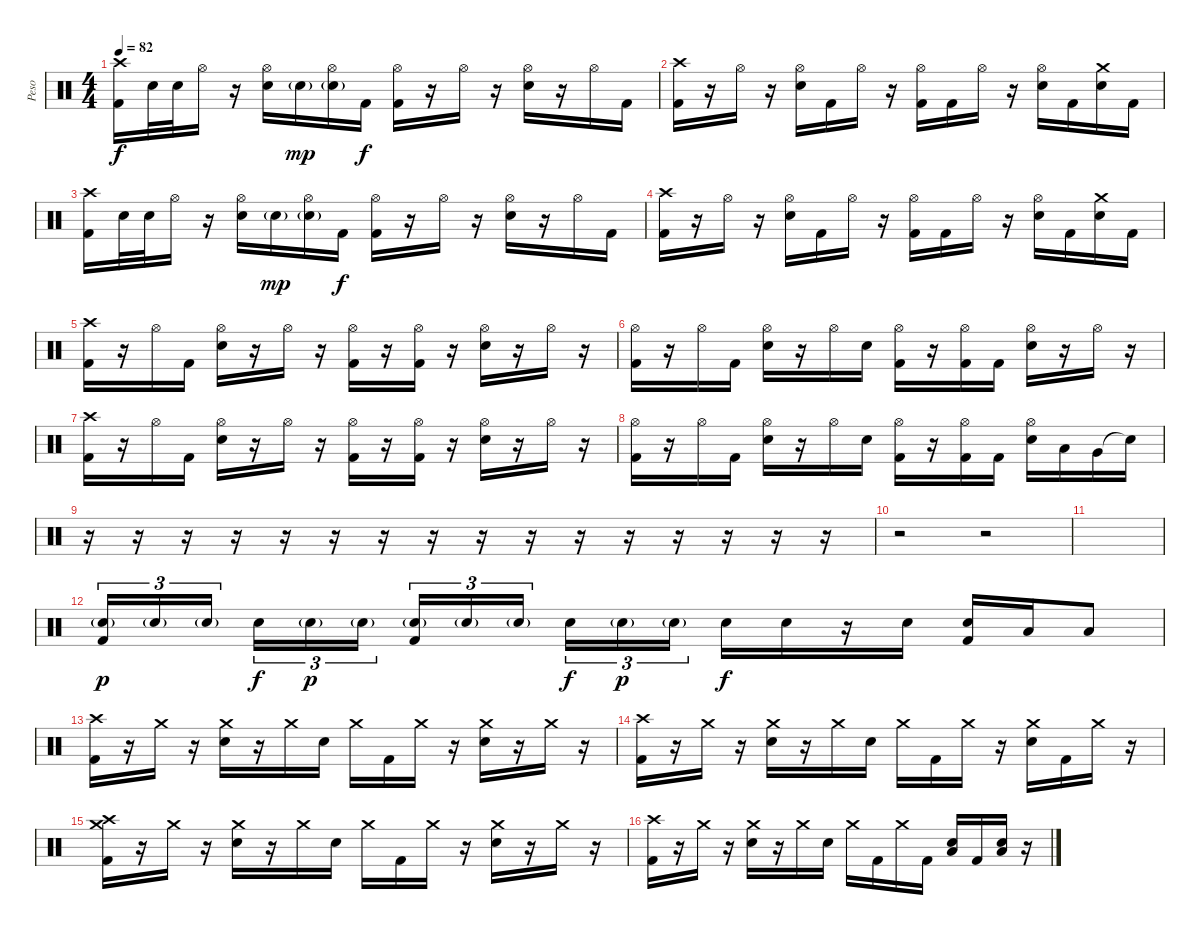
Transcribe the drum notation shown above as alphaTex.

\track ("Peso" "Peso") {instrument percussion}
\staff {score}
\articulation defaults
\ts (4 4)
\tempo 82
\clef neutral
\ks c
("Crash high (hit)" "Kick (hit) 2").16{dy f} "Electric Snare (hit)".32 "Electric Snare (hit)".32 "Hi-Hat (open)".16 r.16 ("Hi-Hat (open)" "Electric Snare (hit)").16 "Electric Snare (hit)"{g}.16{dy mp} ("Hi-Hat (open)" "Electric Snare (hit)"{g}).16 "Kick (hit) 2".16{dy f} ("Hi-Hat (open)" "Kick (hit) 2").16 r.16 "Hi-Hat (open)".16 r.16 ("Hi-Hat (open)" "Electric Snare (hit)").16 r.16 "Hi-Hat (open)".16 "Kick (hit) 2".16 |
("Crash high (hit)" "Kick (hit) 2").16 r.16 "Hi-Hat (open)".16 r.16 ("Hi-Hat (open)" "Electric Snare (hit)").16 "Kick (hit) 2".16 "Hi-Hat (open)".16 r.16 ("Hi-Hat (open)" "Kick (hit) 2").16 "Kick (hit) 2".16 "Hi-Hat (open)".16 r.16 ("Hi-Hat (open)" "Electric Snare (hit)").16 "Kick (hit) 2".16 ("Crash medium (hit)" "Electric Snare (hit)").16 "Kick (hit) 2".16 |
("Crash high (hit)" "Kick (hit) 2").16 "Electric Snare (hit)".32 "Electric Snare (hit)".32 "Hi-Hat (open)".16 r.16 ("Hi-Hat (open)" "Electric Snare (hit)").16 "Electric Snare (hit)"{g}.16{dy mp} ("Hi-Hat (open)" "Electric Snare (hit)"{g}).16 "Kick (hit) 2".16{dy f} ("Hi-Hat (open)" "Kick (hit) 2").16 r.16 "Hi-Hat (open)".16 r.16 ("Hi-Hat (open)" "Electric Snare (hit)").16 r.16 "Hi-Hat (open)".16 "Kick (hit) 2".16 |
("Crash high (hit)" "Kick (hit) 2").16 r.16 "Hi-Hat (open)".16 r.16 ("Hi-Hat (open)" "Electric Snare (hit)").16 "Kick (hit) 2".16 "Hi-Hat (open)".16 r.16 ("Hi-Hat (open)" "Kick (hit) 2").16 "Kick (hit) 2".16 "Hi-Hat (open)".16 r.16 ("Hi-Hat (open)" "Electric Snare (hit)").16 "Kick (hit) 2".16 ("Crash medium (hit)" "Electric Snare (hit)").16 "Kick (hit) 2".16 |
("Crash high (hit)" "Kick (hit) 2").16 r.16 "Hi-Hat (open)".16 "Kick (hit) 2".16 ("Hi-Hat (open)" "Electric Snare (hit)").16 r.16 "Hi-Hat (open)".16 r.16 ("Hi-Hat (open)" "Kick (hit) 2").16 r.16 ("Hi-Hat (open)" "Kick (hit) 2").16 r.16 ("Hi-Hat (open)" "Electric Snare (hit)").16 r.16 "Hi-Hat (open)".16 r.16 |
("Hi-Hat (open)" "Kick (hit) 2").16 r.16 "Hi-Hat (open)".16 "Kick (hit) 2".16 ("Hi-Hat (open)" "Electric Snare (hit)").16 r.16 "Hi-Hat (open)".16 "Electric Snare (hit)".16 ("Hi-Hat (open)" "Kick (hit) 2").16 r.16 ("Hi-Hat (open)" "Kick (hit) 2").16 "Kick (hit) 2".16 ("Hi-Hat (open)" "Electric Snare (hit)").16 r.16 "Hi-Hat (open)".16 r.16 |
("Crash high (hit)" "Kick (hit) 2").16 r.16 "Hi-Hat (open)".16 "Kick (hit) 2".16 ("Hi-Hat (open)" "Electric Snare (hit)").16 r.16 "Hi-Hat (open)".16 r.16 ("Hi-Hat (open)" "Kick (hit) 2").16 r.16 ("Hi-Hat (open)" "Kick (hit) 2").16 r.16 ("Hi-Hat (open)" "Electric Snare (hit)").16 r.16 "Hi-Hat (open)".16 r.16 |
("Hi-Hat (open)" "Kick (hit) 2").16 r.16 "Hi-Hat (open)".16 "Kick (hit) 2".16 ("Hi-Hat (open)" "Electric Snare (hit)").16 r.16 "Hi-Hat (open)".16 "Electric Snare (hit)".16 ("Hi-Hat (open)" "Kick (hit) 2").16 r.16 ("Hi-Hat (open)" "Kick (hit) 2").16 "Kick (hit) 2".16 ("Hi-Hat (open)" "Electric Snare (hit)").16 "Low Tom (hit)".16 "Very Low Tom (hit)".16 "Snare (hit)"{t}.16 |
r.16 r.16 r.16 r.16 r.16 r.16 r.16 r.16 r.16 r.16 r.16 r.16 r.16 r.16 r.16 r.16 |
r.2 r.2 |
|
("Electric Snare (hit)"{g} "Kick (hit) 2").16{tu (3 2) dy p} "Electric Snare (hit)"{g}.16{tu (3 2)} "Electric Snare (hit)"{g}.16{tu (3 2)} "Electric Snare (hit)".16{tu (3 2) dy f} "Electric Snare (hit)"{g}.16{tu (3 2) dy p} "Electric Snare (hit)"{g}.16{tu (3 2)} ("Electric Snare (hit)"{g} "Kick (hit) 2").16{tu (3 2)} "Electric Snare (hit)"{g}.16{tu (3 2)} "Electric Snare (hit)"{g}.16{tu (3 2)} "Electric Snare (hit)".16{tu (3 2) dy f} "Electric Snare (hit)"{g}.16{tu (3 2) dy p} "Electric Snare (hit)"{g}.16{tu (3 2)} "Electric Snare (hit)".16{dy f} "Electric Snare (hit)".16 r.16 "Electric Snare (hit)".16 ("Electric Snare (hit)" "Kick (hit) 2").16 "Low Tom (hit)".16 "Low Tom (hit)".8 |
("Crash high (hit)" "Kick (hit) 2").16 r.16 "Crash medium (hit)".16 r.16 ("Crash medium (hit)" "Electric Snare (hit)").16 r.16 "Crash medium (hit)".16 "Electric Snare (hit)".16 "Crash medium (hit)".16 "Kick (hit) 2".16 "Crash medium (hit)".16 r.16 ("Crash medium (hit)" "Electric Snare (hit)").16 r.16 "Crash medium (hit)".16 r.16 |
("Crash high (hit)" "Kick (hit) 2").16 r.16 "Crash medium (hit)".16 r.16 ("Crash medium (hit)" "Electric Snare (hit)").16 r.16 "Crash medium (hit)".16 "Electric Snare (hit)".16 "Crash medium (hit)".16 "Kick (hit) 2".16 "Crash medium (hit)".16 r.16 ("Crash medium (hit)" "Electric Snare (hit)").16 "Kick (hit) 2".16 "Crash medium (hit)".16 r.16 |
("Crash high (hit)" "Crash medium (hit)" "Kick (hit) 2").16 r.16 "Crash medium (hit)".16 r.16 ("Crash medium (hit)" "Electric Snare (hit)").16 r.16 "Crash medium (hit)".16 "Electric Snare (hit)".16 "Crash medium (hit)".16 "Kick (hit) 2".16 "Crash medium (hit)".16 r.16 ("Crash medium (hit)" "Electric Snare (hit)").16 r.16 "Crash medium (hit)".16 r.16 |
("Crash high (hit)" "Kick (hit) 2").16 r.16 "Crash medium (hit)".16 r.16 ("Crash medium (hit)" "Electric Snare (hit)").16 r.16 "Crash medium (hit)".16 "Electric Snare (hit)".16 "Crash medium (hit)".16 "Kick (hit) 2".16 "Crash medium (hit)".16 "Kick (hit) 2".16 ("Low Floor Tom (hit)" "Electric Snare (hit)").16 "Kick (hit) 2".16 ("Low Floor Tom (hit)" "Electric Snare (hit)").16 r.16
